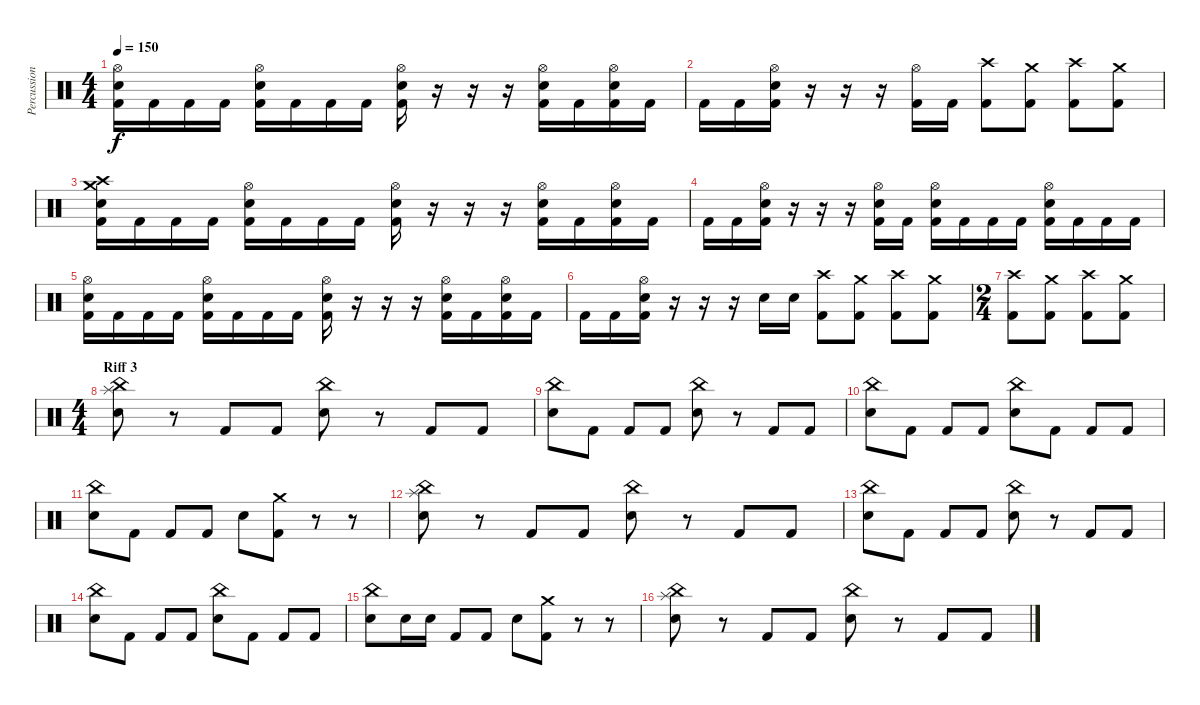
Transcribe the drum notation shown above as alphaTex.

\track ("Percussion" "Percussion") {instrument percussion}
\staff {score}
\articulation defaults
\ts (4 4)
\tempo 150
\clef neutral
\ks c
("Hi-Hat (open)" "Electric Snare (hit)" "Kick (hit) 2").16{dy f} "Kick (hit) 2".16 "Kick (hit) 2".16 "Kick (hit) 2".16 ("Hi-Hat (open)" "Electric Snare (hit)" "Kick (hit) 2").16 "Kick (hit) 2".16 "Kick (hit) 2".16 "Kick (hit) 2".16 ("Hi-Hat (open)" "Electric Snare (hit)" "Kick (hit) 2").16 r.16 r.16 r.16 ("Hi-Hat (open)" "Electric Snare (hit)" "Kick (hit) 2").16 "Kick (hit) 2".16 ("Hi-Hat (open)" "Electric Snare (hit)" "Kick (hit) 2").16 "Kick (hit) 2".16 |
"Kick (hit) 2".16 "Kick (hit) 2".16 ("Hi-Hat (open)" "Electric Snare (hit)" "Kick (hit) 2").16 r.16 r.16 r.16 ("Hi-Hat (open)" "Kick (hit) 2").16 "Kick (hit) 2".16 ("Crash high (hit)" "Kick (hit) 2").8 ("Crash medium (hit)" "Kick (hit) 2").8 ("Crash high (hit)" "Kick (hit) 2").8 ("Crash medium (hit)" "Kick (hit) 2").8 |
("Crash medium (hit)" "Crash high (hit)" "Electric Snare (hit)" "Kick (hit) 2").16 "Kick (hit) 2".16 "Kick (hit) 2".16 "Kick (hit) 2".16 ("Hi-Hat (open)" "Electric Snare (hit)" "Kick (hit) 2").16 "Kick (hit) 2".16 "Kick (hit) 2".16 "Kick (hit) 2".16 ("Hi-Hat (open)" "Electric Snare (hit)" "Kick (hit) 2").16 r.16 r.16 r.16 ("Hi-Hat (open)" "Electric Snare (hit)" "Kick (hit) 2").16 "Kick (hit) 2".16 ("Hi-Hat (open)" "Electric Snare (hit)" "Kick (hit) 2").16 "Kick (hit) 2".16 |
"Kick (hit) 2".16 "Kick (hit) 2".16 ("Hi-Hat (open)" "Electric Snare (hit)" "Kick (hit) 2").16 r.16 r.16 r.16 ("Hi-Hat (open)" "Electric Snare (hit)" "Kick (hit) 2").16 "Kick (hit) 2".16 ("Hi-Hat (open)" "Electric Snare (hit)" "Kick (hit) 2").16 "Kick (hit) 2".16 "Kick (hit) 2".16 "Kick (hit) 2".16 ("Hi-Hat (open)" "Electric Snare (hit)" "Kick (hit) 2").16 "Kick (hit) 2".16 "Kick (hit) 2".16 "Kick (hit) 2".16 |
("Hi-Hat (open)" "Electric Snare (hit)" "Kick (hit) 2").16 "Kick (hit) 2".16 "Kick (hit) 2".16 "Kick (hit) 2".16 ("Hi-Hat (open)" "Electric Snare (hit)" "Kick (hit) 2").16 "Kick (hit) 2".16 "Kick (hit) 2".16 "Kick (hit) 2".16 ("Hi-Hat (open)" "Electric Snare (hit)" "Kick (hit) 2").16 r.16 r.16 r.16 ("Hi-Hat (open)" "Electric Snare (hit)" "Kick (hit) 2").16 "Kick (hit) 2".16 ("Hi-Hat (open)" "Electric Snare (hit)" "Kick (hit) 2").16 "Kick (hit) 2".16 |
"Kick (hit) 2".16 "Kick (hit) 2".16 ("Hi-Hat (open)" "Electric Snare (hit)" "Kick (hit) 2").16 r.16 r.16 r.16 "Electric Snare (hit)".16 "Electric Snare (hit)".16 ("Crash high (hit)" "Kick (hit) 2").8 ("Crash medium (hit)" "Kick (hit) 2").8 ("Crash high (hit)" "Kick (hit) 2").8 ("Crash medium (hit)" "Kick (hit) 2").8 |
\ts (2 4)
("Crash high (hit)" "Kick (hit) 2").8 ("Crash medium (hit)" "Kick (hit) 2").8 ("Crash high (hit)" "Kick (hit) 2").8 ("Crash medium (hit)" "Kick (hit) 2").8 |
\ts (4 4)
\section ("" "Riff 3")
("Splash (hit)" "China (hit)" "Electric Snare (hit)").8 r.8 "Kick (hit) 2".8 "Kick (hit) 2".8 ("China (hit)" "Electric Snare (hit)").8 r.8 "Kick (hit) 2".8 "Kick (hit) 2".8 |
("China (hit)" "Electric Snare (hit)").8 "Kick (hit) 2".8 "Kick (hit) 2".8 "Kick (hit) 2".8 ("China (hit)" "Electric Snare (hit)").8 r.8 "Kick (hit) 2".8 "Kick (hit) 2".8 |
("China (hit)" "Electric Snare (hit)").8 "Kick (hit) 2".8 "Kick (hit) 2".8 "Kick (hit) 2".8 ("China (hit)" "Electric Snare (hit)").8 "Kick (hit) 2".8 "Kick (hit) 2".8 "Kick (hit) 2".8 |
("China (hit)" "Electric Snare (hit)").8 "Kick (hit) 2".8 "Kick (hit) 2".8 "Kick (hit) 2".8 "Electric Snare (hit)".8 ("Crash medium (hit)" "Kick (hit) 2").8 r.8 r.8 |
("Splash (hit)" "China (hit)" "Electric Snare (hit)").8 r.8 "Kick (hit) 2".8 "Kick (hit) 2".8 ("China (hit)" "Electric Snare (hit)").8 r.8 "Kick (hit) 2".8 "Kick (hit) 2".8 |
("China (hit)" "Electric Snare (hit)").8 "Kick (hit) 2".8 "Kick (hit) 2".8 "Kick (hit) 2".8 ("China (hit)" "Electric Snare (hit)").8 r.8 "Kick (hit) 2".8 "Kick (hit) 2".8 |
("China (hit)" "Electric Snare (hit)").8 "Kick (hit) 2".8 "Kick (hit) 2".8 "Kick (hit) 2".8 ("China (hit)" "Electric Snare (hit)").8 "Kick (hit) 2".8 "Kick (hit) 2".8 "Kick (hit) 2".8 |
("China (hit)" "Electric Snare (hit)").8 "Electric Snare (hit)".16 "Electric Snare (hit)".16 "Kick (hit) 2".8 "Kick (hit) 2".8 "Electric Snare (hit)".8 ("Crash medium (hit)" "Kick (hit) 2").8 r.8 r.8 |
("Splash (hit)" "China (hit)" "Electric Snare (hit)").8 r.8 "Kick (hit) 2".8 "Kick (hit) 2".8 ("China (hit)" "Electric Snare (hit)").8 r.8 "Kick (hit) 2".8 "Kick (hit) 2".8
